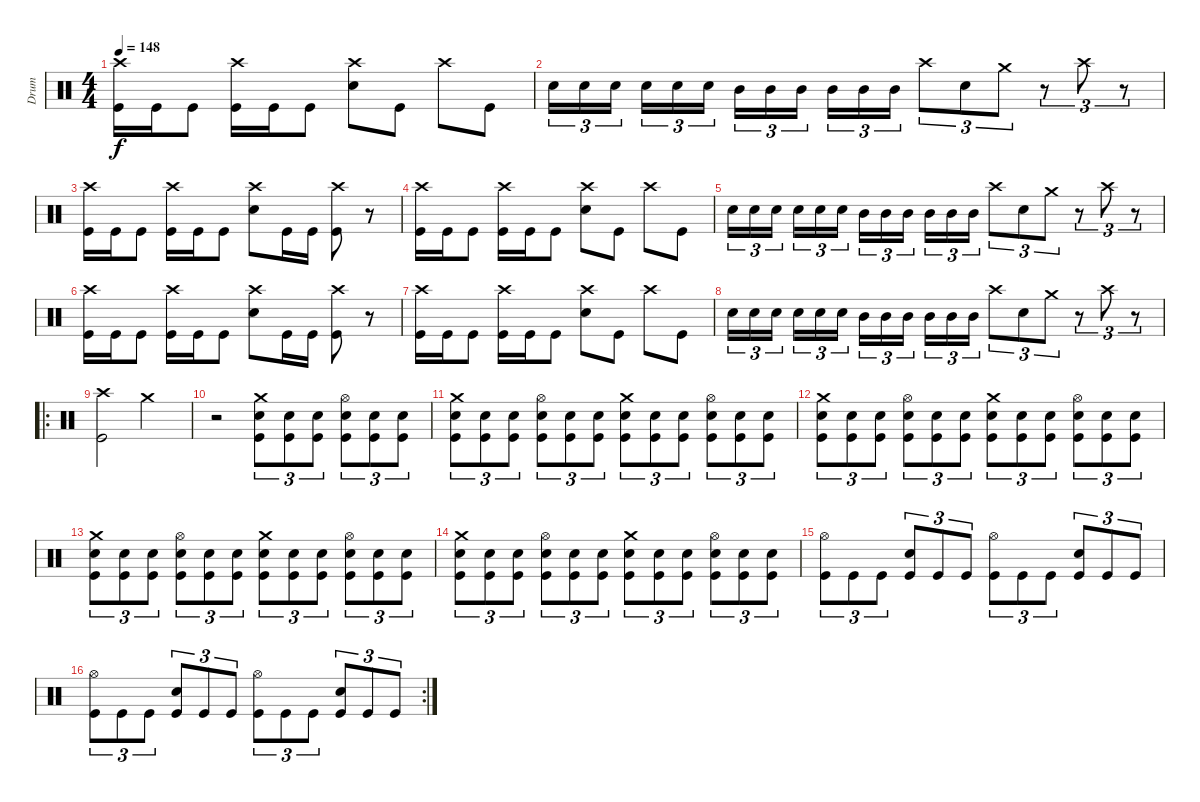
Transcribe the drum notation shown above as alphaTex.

\track ("Drum" "Drum") {instrument percussion}
\staff {score}
\articulation defaults
\ts (4 4)
\tempo 148
\clef neutral
\ks c
("Crash high (hit)" "Kick (hit)").16{dy f} "Kick (hit)".16 "Kick (hit)".8 ("Crash high (hit)" "Kick (hit)").16 "Kick (hit)".16 "Kick (hit)".8 ("Crash high (hit)" "Snare (hit) 2").8 "Kick (hit)".8 "Crash high (hit)".8 "Kick (hit)".8 |
"Snare (hit) 2".16{tu (3 2)} "Snare (hit) 2".16{tu (3 2)} "Snare (hit) 2".16{tu (3 2) beam splitsecondary} "Snare (hit) 2".16{tu (3 2)} "Snare (hit) 2".16{tu (3 2)} "Snare (hit) 2".16{tu (3 2)} "Mid Tom (hit)".16{tu (3 2)} "Mid Tom (hit)".16{tu (3 2)} "Mid Tom (hit)".16{tu (3 2) beam splitsecondary} "Mid Tom (hit)".16{tu (3 2)} "Mid Tom (hit)".16{tu (3 2)} "Mid Tom (hit)".16{tu (3 2)} "Crash high (hit)".8{tu (3 2)} "Snare (hit) 2".8{tu (3 2)} "Crash medium (hit)".8{tu (3 2)} r.8{tu (3 2)} "Crash high (hit)".8{tu (3 2)} r.8{tu (3 2)} |
("Crash high (hit)" "Kick (hit)").16 "Kick (hit)".16 "Kick (hit)".8 ("Crash high (hit)" "Kick (hit)").16 "Kick (hit)".16 "Kick (hit)".8 ("Crash high (hit)" "Snare (hit) 2").8 "Kick (hit)".16 "Kick (hit)".16 ("Crash high (hit)" "Kick (hit)").8 r.8 |
("Crash high (hit)" "Kick (hit)").16 "Kick (hit)".16 "Kick (hit)".8 ("Crash high (hit)" "Kick (hit)").16 "Kick (hit)".16 "Kick (hit)".8 ("Crash high (hit)" "Snare (hit) 2").8 "Kick (hit)".8 "Crash high (hit)".8 "Kick (hit)".8 |
"Snare (hit) 2".16{tu (3 2)} "Snare (hit) 2".16{tu (3 2)} "Snare (hit) 2".16{tu (3 2) beam splitsecondary} "Snare (hit) 2".16{tu (3 2)} "Snare (hit) 2".16{tu (3 2)} "Snare (hit) 2".16{tu (3 2)} "Mid Tom (hit)".16{tu (3 2)} "Mid Tom (hit)".16{tu (3 2)} "Mid Tom (hit)".16{tu (3 2) beam splitsecondary} "Mid Tom (hit)".16{tu (3 2)} "Mid Tom (hit)".16{tu (3 2)} "Mid Tom (hit)".16{tu (3 2)} "Crash high (hit)".8{tu (3 2)} "Snare (hit) 2".8{tu (3 2)} "Crash medium (hit)".8{tu (3 2)} r.8{tu (3 2)} "Crash high (hit)".8{tu (3 2)} r.8{tu (3 2)} |
("Crash high (hit)" "Kick (hit)").16 "Kick (hit)".16 "Kick (hit)".8 ("Crash high (hit)" "Kick (hit)").16 "Kick (hit)".16 "Kick (hit)".8 ("Crash high (hit)" "Snare (hit) 2").8 "Kick (hit)".16 "Kick (hit)".16 ("Crash high (hit)" "Kick (hit)").8 r.8 |
("Crash high (hit)" "Kick (hit)").16 "Kick (hit)".16 "Kick (hit)".8 ("Crash high (hit)" "Kick (hit)").16 "Kick (hit)".16 "Kick (hit)".8 ("Crash high (hit)" "Snare (hit) 2").8 "Kick (hit)".8 "Crash high (hit)".8 "Kick (hit)".8 |
"Snare (hit) 2".16{tu (3 2)} "Snare (hit) 2".16{tu (3 2)} "Snare (hit) 2".16{tu (3 2) beam splitsecondary} "Snare (hit) 2".16{tu (3 2)} "Snare (hit) 2".16{tu (3 2)} "Snare (hit) 2".16{tu (3 2)} "Mid Tom (hit)".16{tu (3 2)} "Mid Tom (hit)".16{tu (3 2)} "Mid Tom (hit)".16{tu (3 2) beam splitsecondary} "Mid Tom (hit)".16{tu (3 2)} "Mid Tom (hit)".16{tu (3 2)} "Mid Tom (hit)".16{tu (3 2)} "Crash high (hit)".8{tu (3 2)} "Snare (hit) 2".8{tu (3 2)} "Crash medium (hit)".8{tu (3 2)} r.8{tu (3 2)} "Crash high (hit)".8{tu (3 2)} r.8{tu (3 2)} |
\ro
("Crash high (hit)" "Kick (hit)").2 "Crash medium (hit)".2 |
r.2 ("Crash medium (hit)" "Snare (hit) 2" "Kick (hit)").8{tu (3 2)} ("Snare (hit) 2" "Kick (hit)").8{tu (3 2)} ("Snare (hit) 2" "Kick (hit)").8{tu (3 2)} ("Hi-Hat (open)" "Snare (hit) 2" "Kick (hit)").8{tu (3 2)} ("Snare (hit) 2" "Kick (hit)").8{tu (3 2)} ("Snare (hit) 2" "Kick (hit)").8{tu (3 2)} |
("Crash medium (hit)" "Snare (hit) 2" "Kick (hit)").8{tu (3 2)} ("Snare (hit) 2" "Kick (hit)").8{tu (3 2)} ("Snare (hit) 2" "Kick (hit)").8{tu (3 2)} ("Hi-Hat (open)" "Snare (hit) 2" "Kick (hit)").8{tu (3 2)} ("Snare (hit) 2" "Kick (hit)").8{tu (3 2)} ("Snare (hit) 2" "Kick (hit)").8{tu (3 2)} ("Crash medium (hit)" "Snare (hit) 2" "Kick (hit)").8{tu (3 2)} ("Snare (hit) 2" "Kick (hit)").8{tu (3 2)} ("Snare (hit) 2" "Kick (hit)").8{tu (3 2)} ("Hi-Hat (open)" "Snare (hit) 2" "Kick (hit)").8{tu (3 2)} ("Snare (hit) 2" "Kick (hit)").8{tu (3 2)} ("Snare (hit) 2" "Kick (hit)").8{tu (3 2)} |
("Crash medium (hit)" "Snare (hit) 2" "Kick (hit)").8{tu (3 2)} ("Snare (hit) 2" "Kick (hit)").8{tu (3 2)} ("Snare (hit) 2" "Kick (hit)").8{tu (3 2)} ("Hi-Hat (open)" "Snare (hit) 2" "Kick (hit)").8{tu (3 2)} ("Snare (hit) 2" "Kick (hit)").8{tu (3 2)} ("Snare (hit) 2" "Kick (hit)").8{tu (3 2)} ("Crash medium (hit)" "Snare (hit) 2" "Kick (hit)").8{tu (3 2)} ("Snare (hit) 2" "Kick (hit)").8{tu (3 2)} ("Snare (hit) 2" "Kick (hit)").8{tu (3 2)} ("Hi-Hat (open)" "Snare (hit) 2" "Kick (hit)").8{tu (3 2)} ("Snare (hit) 2" "Kick (hit)").8{tu (3 2)} ("Snare (hit) 2" "Kick (hit)").8{tu (3 2)} |
("Crash medium (hit)" "Snare (hit) 2" "Kick (hit)").8{tu (3 2)} ("Snare (hit) 2" "Kick (hit)").8{tu (3 2)} ("Snare (hit) 2" "Kick (hit)").8{tu (3 2)} ("Hi-Hat (open)" "Snare (hit) 2" "Kick (hit)").8{tu (3 2)} ("Snare (hit) 2" "Kick (hit)").8{tu (3 2)} ("Snare (hit) 2" "Kick (hit)").8{tu (3 2)} ("Crash medium (hit)" "Snare (hit) 2" "Kick (hit)").8{tu (3 2)} ("Snare (hit) 2" "Kick (hit)").8{tu (3 2)} ("Snare (hit) 2" "Kick (hit)").8{tu (3 2)} ("Hi-Hat (open)" "Snare (hit) 2" "Kick (hit)").8{tu (3 2)} ("Snare (hit) 2" "Kick (hit)").8{tu (3 2)} ("Snare (hit) 2" "Kick (hit)").8{tu (3 2)} |
("Crash medium (hit)" "Snare (hit) 2" "Kick (hit)").8{tu (3 2)} ("Snare (hit) 2" "Kick (hit)").8{tu (3 2)} ("Snare (hit) 2" "Kick (hit)").8{tu (3 2)} ("Hi-Hat (open)" "Snare (hit) 2" "Kick (hit)").8{tu (3 2)} ("Snare (hit) 2" "Kick (hit)").8{tu (3 2)} ("Snare (hit) 2" "Kick (hit)").8{tu (3 2)} ("Crash medium (hit)" "Snare (hit) 2" "Kick (hit)").8{tu (3 2)} ("Snare (hit) 2" "Kick (hit)").8{tu (3 2)} ("Snare (hit) 2" "Kick (hit)").8{tu (3 2)} ("Hi-Hat (open)" "Snare (hit) 2" "Kick (hit)").8{tu (3 2)} ("Snare (hit) 2" "Kick (hit)").8{tu (3 2)} ("Snare (hit) 2" "Kick (hit)").8{tu (3 2)} |
("Hi-Hat (open)" "Kick (hit)").8{tu (3 2)} "Kick (hit)".8{tu (3 2)} "Kick (hit)".8{tu (3 2)} ("Snare (hit) 2" "Kick (hit)").8{tu (3 2)} "Kick (hit)".8{tu (3 2)} "Kick (hit)".8{tu (3 2)} ("Hi-Hat (open)" "Kick (hit)").8{tu (3 2)} "Kick (hit)".8{tu (3 2)} "Kick (hit)".8{tu (3 2)} ("Snare (hit) 2" "Kick (hit)").8{tu (3 2)} "Kick (hit)".8{tu (3 2)} "Kick (hit)".8{tu (3 2)} |
\rc 2
("Hi-Hat (open)" "Kick (hit)").8{tu (3 2)} "Kick (hit)".8{tu (3 2)} "Kick (hit)".8{tu (3 2)} ("Snare (hit) 2" "Kick (hit)").8{tu (3 2)} "Kick (hit)".8{tu (3 2)} "Kick (hit)".8{tu (3 2)} ("Hi-Hat (open)" "Kick (hit)").8{tu (3 2)} "Kick (hit)".8{tu (3 2)} "Kick (hit)".8{tu (3 2)} ("Snare (hit) 2" "Kick (hit)").8{tu (3 2)} "Kick (hit)".8{tu (3 2)} "Kick (hit)".8{tu (3 2)}
